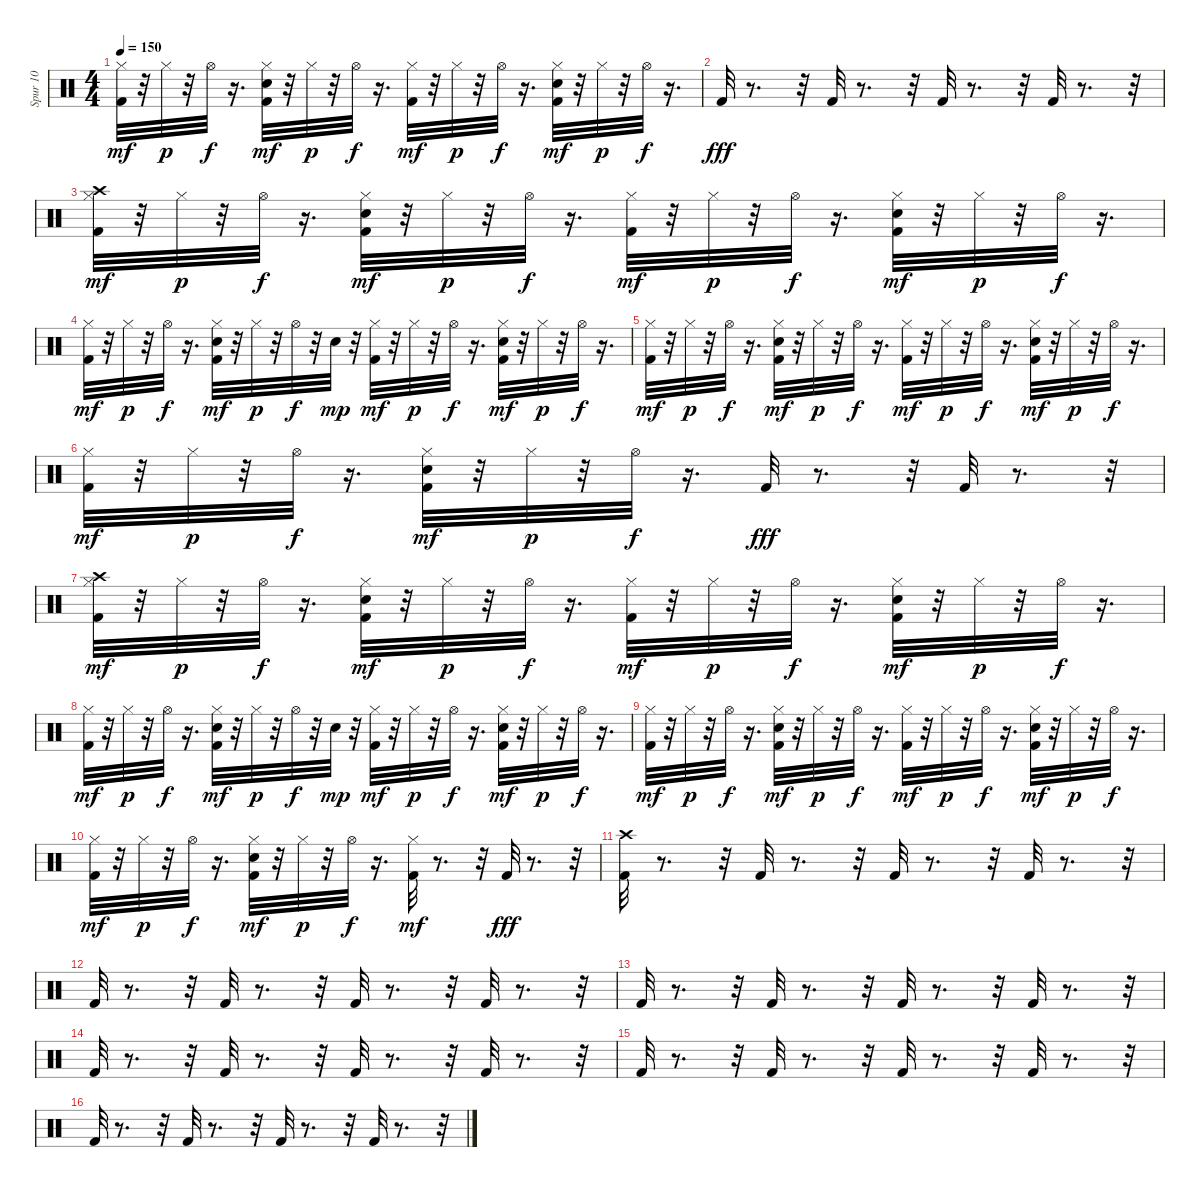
\track ("Spur 10" "Spur 10") {instrument percussion}
\staff {score}
\articulation defaults
\ts (4 4)
\tempo 150
\clef neutral
\ks c
("Kick (hit) 2" "Hi-Hat (closed)").32{dy mf} r.32 "Hi-Hat (closed)".32{dy p} r.32 "Hi-Hat (open)".32{dy f} r.16{d} ("Kick (hit) 2" "Snare (hit) 2" "Hi-Hat (closed)").32{dy mf} r.32 "Hi-Hat (closed)".32{dy p} r.32 "Hi-Hat (open)".32{dy f} r.16{d} ("Kick (hit) 2" "Hi-Hat (closed)").32{dy mf} r.32 "Hi-Hat (closed)".32{dy p} r.32 "Hi-Hat (open)".32{dy f} r.16{d} ("Kick (hit) 2" "Snare (hit) 2" "Hi-Hat (closed)").32{dy mf} r.32 "Hi-Hat (closed)".32{dy p} r.32 "Hi-Hat (open)".32{dy f} r.16{d} |
"Kick (hit) 2".32{dy fff} r.8{d} r.32 "Kick (hit) 2".32 r.8{d} r.32 "Kick (hit) 2".32 r.8{d} r.32 "Kick (hit) 2".32 r.8{d} r.32 |
("Crash high (hit)" "Kick (hit) 2" "Hi-Hat (closed)").32{dy mf} r.32 "Hi-Hat (closed)".32{dy p} r.32 "Hi-Hat (open)".32{dy f} r.16{d} ("Kick (hit) 2" "Snare (hit) 2" "Hi-Hat (closed)").32{dy mf} r.32 "Hi-Hat (closed)".32{dy p} r.32 "Hi-Hat (open)".32{dy f} r.16{d} ("Kick (hit) 2" "Hi-Hat (closed)").32{dy mf} r.32 "Hi-Hat (closed)".32{dy p} r.32 "Hi-Hat (open)".32{dy f} r.16{d} ("Kick (hit) 2" "Snare (hit) 2" "Hi-Hat (closed)").32{dy mf} r.32 "Hi-Hat (closed)".32{dy p} r.32 "Hi-Hat (open)".32{dy f} r.16{d} |
("Kick (hit) 2" "Hi-Hat (closed)").32{dy mf} r.32 "Hi-Hat (closed)".32{dy p} r.32 "Hi-Hat (open)".32{dy f} r.16{d} ("Kick (hit) 2" "Snare (hit) 2" "Hi-Hat (closed)").32{dy mf} r.32 "Hi-Hat (closed)".32{dy p} r.32 "Hi-Hat (open)".32{dy f} r.32 "Snare (hit) 2".32{dy mp} r.32 ("Kick (hit) 2" "Hi-Hat (closed)").32{dy mf} r.32 "Hi-Hat (closed)".32{dy p} r.32 "Hi-Hat (open)".32{dy f} r.16{d} ("Kick (hit) 2" "Snare (hit) 2" "Hi-Hat (closed)").32{dy mf} r.32 "Hi-Hat (closed)".32{dy p} r.32 "Hi-Hat (open)".32{dy f} r.16{d} |
("Kick (hit) 2" "Hi-Hat (closed)").32{dy mf} r.32 "Hi-Hat (closed)".32{dy p} r.32 "Hi-Hat (open)".32{dy f} r.16{d} ("Kick (hit) 2" "Snare (hit) 2" "Hi-Hat (closed)").32{dy mf} r.32 "Hi-Hat (closed)".32{dy p} r.32 "Hi-Hat (open)".32{dy f} r.16{d} ("Kick (hit) 2" "Hi-Hat (closed)").32{dy mf} r.32 "Hi-Hat (closed)".32{dy p} r.32 "Hi-Hat (open)".32{dy f} r.16{d} ("Kick (hit) 2" "Snare (hit) 2" "Hi-Hat (closed)").32{dy mf} r.32 "Hi-Hat (closed)".32{dy p} r.32 "Hi-Hat (open)".32{dy f} r.16{d} |
("Kick (hit) 2" "Hi-Hat (closed)").32{dy mf} r.32 "Hi-Hat (closed)".32{dy p} r.32 "Hi-Hat (open)".32{dy f} r.16{d} ("Kick (hit) 2" "Snare (hit) 2" "Hi-Hat (closed)").32{dy mf} r.32 "Hi-Hat (closed)".32{dy p} r.32 "Hi-Hat (open)".32{dy f} r.16{d} "Kick (hit) 2".32{dy fff} r.8{d} r.32 "Kick (hit) 2".32 r.8{d} r.32 |
("Crash high (hit)" "Kick (hit) 2" "Hi-Hat (closed)").32{dy mf} r.32 "Hi-Hat (closed)".32{dy p} r.32 "Hi-Hat (open)".32{dy f} r.16{d} ("Kick (hit) 2" "Snare (hit) 2" "Hi-Hat (closed)").32{dy mf} r.32 "Hi-Hat (closed)".32{dy p} r.32 "Hi-Hat (open)".32{dy f} r.16{d} ("Kick (hit) 2" "Hi-Hat (closed)").32{dy mf} r.32 "Hi-Hat (closed)".32{dy p} r.32 "Hi-Hat (open)".32{dy f} r.16{d} ("Kick (hit) 2" "Snare (hit) 2" "Hi-Hat (closed)").32{dy mf} r.32 "Hi-Hat (closed)".32{dy p} r.32 "Hi-Hat (open)".32{dy f} r.16{d} |
("Kick (hit) 2" "Hi-Hat (closed)").32{dy mf} r.32 "Hi-Hat (closed)".32{dy p} r.32 "Hi-Hat (open)".32{dy f} r.16{d} ("Kick (hit) 2" "Snare (hit) 2" "Hi-Hat (closed)").32{dy mf} r.32 "Hi-Hat (closed)".32{dy p} r.32 "Hi-Hat (open)".32{dy f} r.32 "Snare (hit) 2".32{dy mp} r.32 ("Kick (hit) 2" "Hi-Hat (closed)").32{dy mf} r.32 "Hi-Hat (closed)".32{dy p} r.32 "Hi-Hat (open)".32{dy f} r.16{d} ("Kick (hit) 2" "Snare (hit) 2" "Hi-Hat (closed)").32{dy mf} r.32 "Hi-Hat (closed)".32{dy p} r.32 "Hi-Hat (open)".32{dy f} r.16{d} |
("Kick (hit) 2" "Hi-Hat (closed)").32{dy mf} r.32 "Hi-Hat (closed)".32{dy p} r.32 "Hi-Hat (open)".32{dy f} r.16{d} ("Kick (hit) 2" "Snare (hit) 2" "Hi-Hat (closed)").32{dy mf} r.32 "Hi-Hat (closed)".32{dy p} r.32 "Hi-Hat (open)".32{dy f} r.16{d} ("Kick (hit) 2" "Hi-Hat (closed)").32{dy mf} r.32 "Hi-Hat (closed)".32{dy p} r.32 "Hi-Hat (open)".32{dy f} r.16{d} ("Kick (hit) 2" "Snare (hit) 2" "Hi-Hat (closed)").32{dy mf} r.32 "Hi-Hat (closed)".32{dy p} r.32 "Hi-Hat (open)".32{dy f} r.16{d} |
("Kick (hit) 2" "Hi-Hat (closed)").32{dy mf} r.32 "Hi-Hat (closed)".32{dy p} r.32 "Hi-Hat (open)".32{dy f} r.16{d} ("Kick (hit) 2" "Snare (hit) 2" "Hi-Hat (closed)").32{dy mf} r.32 "Hi-Hat (closed)".32{dy p} r.32 "Hi-Hat (open)".32{dy f} r.16{d} ("Kick (hit) 2" "Hi-Hat (closed)").32{dy mf} r.8{d} r.32 "Kick (hit) 2".32{dy fff} r.8{d} r.32 |
("Crash high (hit)" "Kick (hit) 2").32 r.8{d} r.32 "Kick (hit) 2".32 r.8{d} r.32 "Kick (hit) 2".32 r.8{d} r.32 "Kick (hit) 2".32 r.8{d} r.32 |
"Kick (hit) 2".32 r.8{d} r.32 "Kick (hit) 2".32 r.8{d} r.32 "Kick (hit) 2".32 r.8{d} r.32 "Kick (hit) 2".32 r.8{d} r.32 |
"Kick (hit) 2".32 r.8{d} r.32 "Kick (hit) 2".32 r.8{d} r.32 "Kick (hit) 2".32 r.8{d} r.32 "Kick (hit) 2".32 r.8{d} r.32 |
"Kick (hit) 2".32 r.8{d} r.32 "Kick (hit) 2".32 r.8{d} r.32 "Kick (hit) 2".32 r.8{d} r.32 "Kick (hit) 2".32 r.8{d} r.32 |
"Kick (hit) 2".32 r.8{d} r.32 "Kick (hit) 2".32 r.8{d} r.32 "Kick (hit) 2".32 r.8{d} r.32 "Kick (hit) 2".32 r.8{d} r.32 |
"Kick (hit) 2".32 r.8{d} r.32 "Kick (hit) 2".32 r.8{d} r.32 "Kick (hit) 2".32 r.8{d} r.32 "Kick (hit) 2".32 r.8{d} r.32
